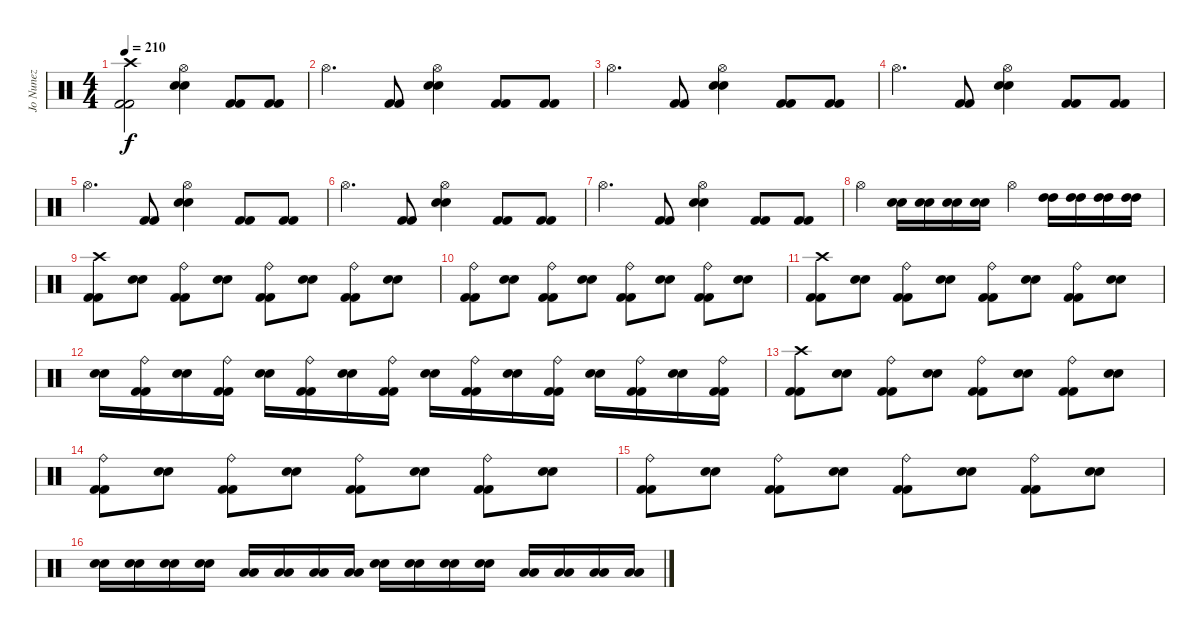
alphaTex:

\track ("Jo Nunez" "Jo Nunez") {instrument percussion}
\staff {score}
\articulation defaults
\ts (4 4)
\tempo 210
\clef neutral
\ks c
("Kick (hit) 2" "Kick (hit) 2" "Crash high (hit)").2{dy f} ("Electric Snare (hit)" "Electric Snare (hit)" "Hi-Hat (open)").4 ("Kick (hit) 2" "Kick (hit) 2").8 ("Kick (hit) 2" "Kick (hit) 2").8 |
"Hi-Hat (open)".4{d} ("Kick (hit) 2" "Kick (hit) 2").8 ("Electric Snare (hit)" "Electric Snare (hit)" "Hi-Hat (open)").4 ("Kick (hit) 2" "Kick (hit) 2").8 ("Kick (hit) 2" "Kick (hit) 2").8 |
"Hi-Hat (open)".4{d} ("Kick (hit) 2" "Kick (hit) 2").8 ("Electric Snare (hit)" "Electric Snare (hit)" "Hi-Hat (open)").4 ("Kick (hit) 2" "Kick (hit) 2").8 ("Kick (hit) 2" "Kick (hit) 2").8 |
"Hi-Hat (open)".4{d} ("Kick (hit) 2" "Kick (hit) 2").8 ("Electric Snare (hit)" "Electric Snare (hit)" "Hi-Hat (open)").4 ("Kick (hit) 2" "Kick (hit) 2").8 ("Kick (hit) 2" "Kick (hit) 2").8 |
"Hi-Hat (open)".4{d} ("Kick (hit) 2" "Kick (hit) 2").8 ("Electric Snare (hit)" "Electric Snare (hit)" "Hi-Hat (open)").4 ("Kick (hit) 2" "Kick (hit) 2").8 ("Kick (hit) 2" "Kick (hit) 2").8 |
"Hi-Hat (open)".4{d} ("Kick (hit) 2" "Kick (hit) 2").8 ("Electric Snare (hit)" "Electric Snare (hit)" "Hi-Hat (open)").4 ("Kick (hit) 2" "Kick (hit) 2").8 ("Kick (hit) 2" "Kick (hit) 2").8 |
"Hi-Hat (open)".4{d} ("Kick (hit) 2" "Kick (hit) 2").8 ("Electric Snare (hit)" "Electric Snare (hit)" "Hi-Hat (open)").4 ("Kick (hit) 2" "Kick (hit) 2").8 ("Kick (hit) 2" "Kick (hit) 2").8 |
"Hi-Hat (open)".4 ("Electric Snare (hit)" "Electric Snare (hit)").16 ("Electric Snare (hit)" "Electric Snare (hit)").16 ("Electric Snare (hit)" "Electric Snare (hit)").16 ("Electric Snare (hit)" "Electric Snare (hit)").16 "Hi-Hat (open)".4 ("High Tom (hit)" "High Tom (hit)").16 ("High Tom (hit)" "High Tom (hit)").16 ("High Tom (hit)" "High Tom (hit)").16 ("High Tom (hit)" "High Tom (hit)").16 |
("Kick (hit) 2" "Kick (hit) 2" "Crash high (hit)").8 ("Electric Snare (hit)" "Electric Snare (hit)").8 ("Kick (hit) 2" "Kick (hit) 2" "Ride (bell)").8 ("Electric Snare (hit)" "Electric Snare (hit)").8 ("Kick (hit) 2" "Kick (hit) 2" "Ride (bell)").8 ("Electric Snare (hit)" "Electric Snare (hit)").8 ("Kick (hit) 2" "Kick (hit) 2" "Ride (bell)").8 ("Electric Snare (hit)" "Electric Snare (hit)").8 |
("Kick (hit) 2" "Kick (hit) 2" "Ride (bell)").8 ("Electric Snare (hit)" "Electric Snare (hit)").8 ("Kick (hit) 2" "Kick (hit) 2" "Ride (bell)").8 ("Electric Snare (hit)" "Electric Snare (hit)").8 ("Kick (hit) 2" "Kick (hit) 2" "Ride (bell)").8 ("Electric Snare (hit)" "Electric Snare (hit)").8 ("Kick (hit) 2" "Kick (hit) 2" "Ride (bell)").8 ("Electric Snare (hit)" "Electric Snare (hit)").8 |
("Kick (hit) 2" "Kick (hit) 2" "Crash high (hit)").8 ("Electric Snare (hit)" "Electric Snare (hit)").8 ("Kick (hit) 2" "Kick (hit) 2" "Ride (bell)").8 ("Electric Snare (hit)" "Electric Snare (hit)").8 ("Kick (hit) 2" "Kick (hit) 2" "Ride (bell)").8 ("Electric Snare (hit)" "Electric Snare (hit)").8 ("Kick (hit) 2" "Kick (hit) 2" "Ride (bell)").8 ("Electric Snare (hit)" "Electric Snare (hit)").8 |
("Electric Snare (hit)" "Electric Snare (hit)").16 ("Kick (hit) 2" "Kick (hit) 2" "Ride (bell)").16 ("Electric Snare (hit)" "Electric Snare (hit)").16 ("Kick (hit) 2" "Kick (hit) 2" "Ride (bell)").16 ("Electric Snare (hit)" "Electric Snare (hit)").16 ("Kick (hit) 2" "Kick (hit) 2" "Ride (bell)").16 ("Electric Snare (hit)" "Electric Snare (hit)").16 ("Kick (hit) 2" "Kick (hit) 2" "Ride (bell)").16 ("Electric Snare (hit)" "Electric Snare (hit)").16 ("Kick (hit) 2" "Kick (hit) 2" "Ride (bell)").16 ("Electric Snare (hit)" "Electric Snare (hit)").16 ("Kick (hit) 2" "Kick (hit) 2" "Ride (bell)").16 ("Electric Snare (hit)" "Electric Snare (hit)").16 ("Kick (hit) 2" "Kick (hit) 2" "Ride (bell)").16 ("Electric Snare (hit)" "Electric Snare (hit)").16 ("Kick (hit) 2" "Kick (hit) 2" "Ride (bell)").16 |
("Kick (hit) 2" "Kick (hit) 2" "Crash high (hit)").8 ("Electric Snare (hit)" "Electric Snare (hit)").8 ("Kick (hit) 2" "Kick (hit) 2" "Ride (bell)").8 ("Electric Snare (hit)" "Electric Snare (hit)").8 ("Kick (hit) 2" "Kick (hit) 2" "Ride (bell)").8 ("Electric Snare (hit)" "Electric Snare (hit)").8 ("Kick (hit) 2" "Kick (hit) 2" "Ride (bell)").8 ("Electric Snare (hit)" "Electric Snare (hit)").8 |
("Kick (hit) 2" "Kick (hit) 2" "Ride (bell)").8 ("Electric Snare (hit)" "Electric Snare (hit)").8 ("Kick (hit) 2" "Kick (hit) 2" "Ride (bell)").8 ("Electric Snare (hit)" "Electric Snare (hit)").8 ("Kick (hit) 2" "Kick (hit) 2" "Ride (bell)").8 ("Electric Snare (hit)" "Electric Snare (hit)").8 ("Kick (hit) 2" "Kick (hit) 2" "Ride (bell)").8 ("Electric Snare (hit)" "Electric Snare (hit)").8 |
("Kick (hit) 2" "Kick (hit) 2" "Ride (bell)").8 ("Electric Snare (hit)" "Electric Snare (hit)").8 ("Kick (hit) 2" "Kick (hit) 2" "Ride (bell)").8 ("Electric Snare (hit)" "Electric Snare (hit)").8 ("Kick (hit) 2" "Kick (hit) 2" "Ride (bell)").8 ("Electric Snare (hit)" "Electric Snare (hit)").8 ("Kick (hit) 2" "Kick (hit) 2" "Ride (bell)").8 ("Electric Snare (hit)" "Electric Snare (hit)").8 |
("Electric Snare (hit)" "Electric Snare (hit)").16 ("Electric Snare (hit)" "Electric Snare (hit)").16 ("Electric Snare (hit)" "Electric Snare (hit)").16 ("Electric Snare (hit)" "Electric Snare (hit)").16 ("Low Tom (hit)" "Low Tom (hit)").16 ("Low Tom (hit)" "Low Tom (hit)").16 ("Low Tom (hit)" "Low Tom (hit)").16 ("Low Tom (hit)" "Low Tom (hit)").16 ("Electric Snare (hit)" "Electric Snare (hit)").16 ("Electric Snare (hit)" "Electric Snare (hit)").16 ("Electric Snare (hit)" "Electric Snare (hit)").16 ("Electric Snare (hit)" "Electric Snare (hit)").16 ("Low Tom (hit)" "Low Tom (hit)").16 ("Low Tom (hit)" "Low Tom (hit)").16 ("Low Tom (hit)" "Low Tom (hit)").16 ("Low Tom (hit)" "Low Tom (hit)").16
